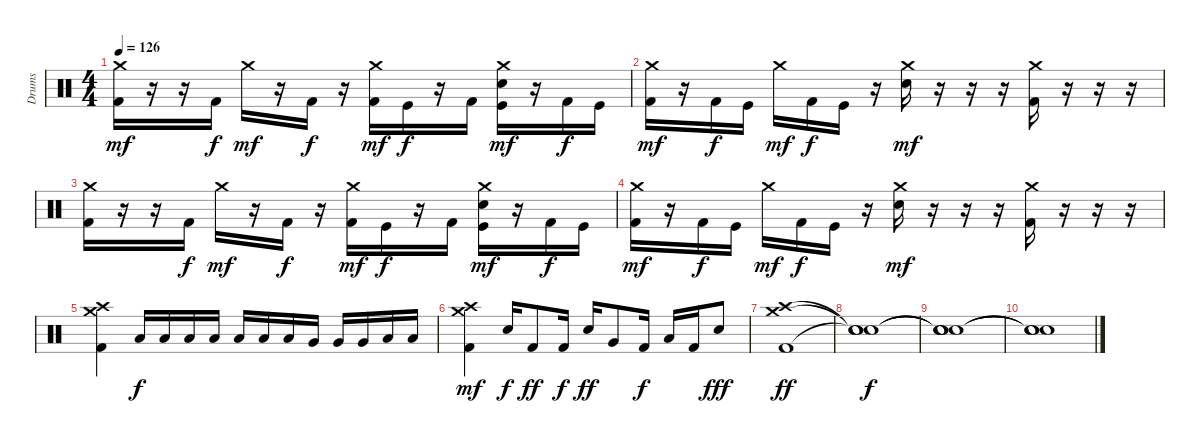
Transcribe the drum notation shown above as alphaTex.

\track ("Drums" "Drums") {instrument percussion}
\staff
\articulation defaults
\ts (4 4)
\tempo 126
\clef neutral
\ks c
("Crash medium (hit)" "Kick (hit) 2").16{dy mf} r.16 r.16 "Kick (hit) 2".16{dy f} "Crash medium (hit)".16{dy mf} r.16 "Kick (hit) 2".16{dy f} r.16 ("Crash medium (hit)" "Kick (hit) 2").16{dy mf} "Kick (hit)".16{dy f} r.16 "Kick (hit) 2".16 ("Crash medium (hit)" "Snare (hit) 2" "Kick (hit)").16{dy mf} r.16 "Kick (hit) 2".16{dy f} "Kick (hit)".16 |
("Crash medium (hit)" "Kick (hit) 2").16{dy mf} r.16 "Kick (hit) 2".16{dy f} "Kick (hit)".16 "Crash medium (hit)".16{dy mf} "Kick (hit) 2".16{dy f} "Kick (hit)".16 r.16 ("Crash medium (hit)" "Snare (hit) 2").16{dy mf} r.16 r.16 r.16 ("Crash medium (hit)" "Kick (hit) 2").16 r.16 r.16 r.16 |
("Crash medium (hit)" "Kick (hit) 2").16 r.16 r.16 "Kick (hit) 2".16{dy f} "Crash medium (hit)".16{dy mf} r.16 "Kick (hit) 2".16{dy f} r.16 ("Crash medium (hit)" "Kick (hit) 2").16{dy mf} "Kick (hit)".16{dy f} r.16 "Kick (hit) 2".16 ("Crash medium (hit)" "Snare (hit) 2" "Kick (hit)").16{dy mf} r.16 "Kick (hit) 2".16{dy f} "Kick (hit)".16 |
("Crash medium (hit)" "Kick (hit) 2").16{dy mf} r.16 "Kick (hit) 2".16{dy f} "Kick (hit)".16 "Crash medium (hit)".16{dy mf} "Kick (hit) 2".16{dy f} "Kick (hit)".16 r.16 ("Crash medium (hit)" "Snare (hit) 2").16{dy mf} r.16 r.16 r.16 ("Crash medium (hit)" "Kick (hit) 2").16 r.16 r.16 r.16 |
("Crash medium (hit)" "Crash high (hit)" "Kick (hit) 2").4 "Low Floor Tom (hit)".16{dy f} "Low Floor Tom (hit)".16 "Low Floor Tom (hit)".16 "Low Floor Tom (hit)".16 "Low Tom (hit)".16 "Low Tom (hit)".16 "Low Tom (hit)".16 "Very Low Tom (hit)".16 "Very Low Tom (hit)".16 "Very Low Tom (hit)".16 "Low Floor Tom (hit)".16 "Low Floor Tom (hit)".16 |
("Crash medium (hit)" "Crash high (hit)" "Kick (hit) 2").4{dy mf} "Snare (hit) 2".16{dy f} "Kick (hit) 2".8{dy ff} "Kick (hit) 2".16{dy f} "Snare (hit) 2".16{dy ff} "Very Low Tom (hit)".8 "Kick (hit) 2".16{dy f} "Low Floor Tom (hit)".16 "Kick (hit) 2".16 "Snare (hit) 2".8{dy fff} |
("Crash high (hit)" "Crash medium (hit)" "Kick (hit) 2").1{dy ff} |
("Snare (hit)"{t} "Snare (hit)"{t} "Snare (hit)"{t}).1{dy f} |
("Snare (hit)"{t} "Snare (hit)"{t} "Snare (hit)"{t} "Snare (hit)").1 |
("Snare (hit)"{t} "Snare (hit)"{t} "Snare (hit)"{t}).1
